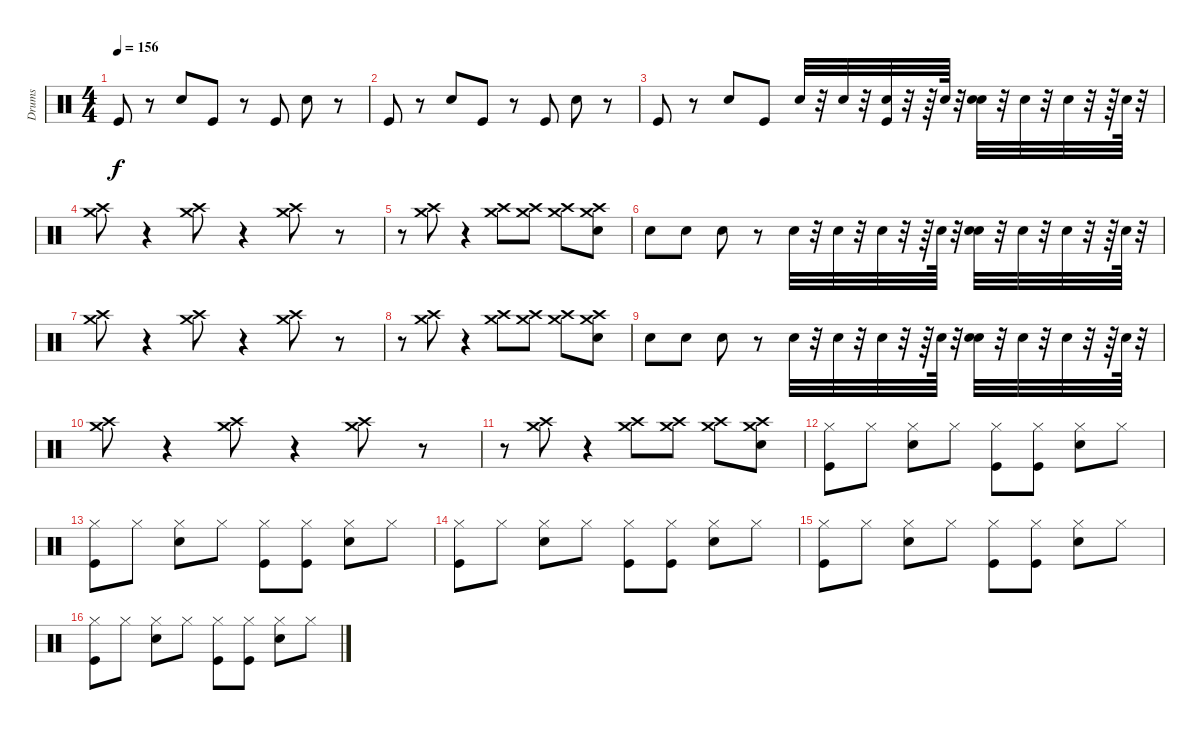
\track ("Drums" "Drums") {instrument percussion}
\staff {score}
\articulation defaults
\ts (4 4)
\tempo 156
\clef neutral
\ks c "Kick (hit)".8{dy f}
r.8 "Snare (hit) 2".8 "Kick (hit)".8 r.8 "Kick (hit)".8 "Snare (hit) 2".8 r.8 |
"Kick (hit)".8 r.8 "Snare (hit) 2".8 "Kick (hit)".8 r.8 "Kick (hit)".8 "Snare (hit) 2".8 r.8 |
"Kick (hit)".8 r.8 "Snare (hit) 2".8 "Kick (hit)".8 "Electric Snare (hit)".32 r.32 "Electric Snare (hit)".32 r.32 ("Kick (hit)" "Electric Snare (hit)").32 r.32 r.64 "Electric Snare (hit)".64 r.32 ("Snare (hit) 2" "Electric Snare (hit)").32 r.32 "Electric Snare (hit)".32 r.32 "Electric Snare (hit)".32 r.32 r.64 "Electric Snare (hit)".64 r.32 |
("Crash high (hit)" "Crash medium (hit)").8 r.4 ("Crash high (hit)" "Crash medium (hit)").8 r.4 ("Crash high (hit)" "Crash medium (hit)").8 r.8 |
r.8 ("Crash high (hit)" "Crash medium (hit)").8 r.4 ("Crash high (hit)" "Crash medium (hit)").8 ("Crash high (hit)" "Crash medium (hit)").8 ("Crash high (hit)" "Crash medium (hit)").8 ("Crash high (hit)" "Crash medium (hit)" "Snare (hit) 2").8 |
"Snare (hit) 2".8 "Snare (hit) 2".8 "Snare (hit) 2".8 r.8 "Electric Snare (hit)".32 r.32 "Electric Snare (hit)".32 r.32 "Electric Snare (hit)".32 r.32 r.64 "Electric Snare (hit)".64 r.32 ("Snare (hit) 2" "Electric Snare (hit)").32 r.32 "Electric Snare (hit)".32 r.32 "Electric Snare (hit)".32 r.32 r.64 "Electric Snare (hit)".64 r.32 |
("Crash high (hit)" "Crash medium (hit)").8 r.4 ("Crash high (hit)" "Crash medium (hit)").8 r.4 ("Crash high (hit)" "Crash medium (hit)").8 r.8 |
r.8 ("Crash high (hit)" "Crash medium (hit)").8 r.4 ("Crash high (hit)" "Crash medium (hit)").8 ("Crash high (hit)" "Crash medium (hit)").8 ("Crash high (hit)" "Crash medium (hit)").8 ("Crash high (hit)" "Crash medium (hit)" "Snare (hit) 2").8 |
"Snare (hit) 2".8 "Snare (hit) 2".8 "Snare (hit) 2".8 r.8 "Electric Snare (hit)".32 r.32 "Electric Snare (hit)".32 r.32 "Electric Snare (hit)".32 r.32 r.64 "Electric Snare (hit)".64 r.32 ("Snare (hit) 2" "Electric Snare (hit)").32 r.32 "Electric Snare (hit)".32 r.32 "Electric Snare (hit)".32 r.32 r.64 "Electric Snare (hit)".64 r.32 |
("Crash high (hit)" "Crash medium (hit)").8 r.4 ("Crash high (hit)" "Crash medium (hit)").8 r.4 ("Crash high (hit)" "Crash medium (hit)").8 r.8 |
r.8 ("Crash high (hit)" "Crash medium (hit)").8 r.4 ("Crash high (hit)" "Crash medium (hit)").8 ("Crash high (hit)" "Crash medium (hit)").8 ("Crash high (hit)" "Crash medium (hit)").8 ("Crash high (hit)" "Crash medium (hit)" "Snare (hit) 2").8 |
("Kick (hit)" "Hi-Hat (closed)").8 "Hi-Hat (closed)".8 ("Snare (hit) 2" "Hi-Hat (closed)").8 "Hi-Hat (closed)".8 ("Kick (hit)" "Hi-Hat (closed)").8 ("Kick (hit)" "Hi-Hat (closed)").8 ("Snare (hit) 2" "Hi-Hat (closed)").8 "Hi-Hat (closed)".8 |
("Kick (hit)" "Hi-Hat (closed)").8 "Hi-Hat (closed)".8 ("Snare (hit) 2" "Hi-Hat (closed)").8 "Hi-Hat (closed)".8 ("Kick (hit)" "Hi-Hat (closed)").8 ("Kick (hit)" "Hi-Hat (closed)").8 ("Snare (hit) 2" "Hi-Hat (closed)").8 "Hi-Hat (closed)".8 |
("Kick (hit)" "Hi-Hat (closed)").8 "Hi-Hat (closed)".8 ("Snare (hit) 2" "Hi-Hat (closed)").8 "Hi-Hat (closed)".8 ("Kick (hit)" "Hi-Hat (closed)").8 ("Kick (hit)" "Hi-Hat (closed)").8 ("Snare (hit) 2" "Hi-Hat (closed)").8 "Hi-Hat (closed)".8 |
("Kick (hit)" "Hi-Hat (closed)").8 "Hi-Hat (closed)".8 ("Snare (hit) 2" "Hi-Hat (closed)").8 "Hi-Hat (closed)".8 ("Kick (hit)" "Hi-Hat (closed)").8 ("Kick (hit)" "Hi-Hat (closed)").8 ("Snare (hit) 2" "Hi-Hat (closed)").8 "Hi-Hat (closed)".8 |
("Kick (hit)" "Hi-Hat (closed)").8 "Hi-Hat (closed)".8 ("Snare (hit) 2" "Hi-Hat (closed)").8 "Hi-Hat (closed)".8 ("Kick (hit)" "Hi-Hat (closed)").8 ("Kick (hit)" "Hi-Hat (closed)").8 ("Snare (hit) 2" "Hi-Hat (closed)").8 "Hi-Hat (closed)".8
